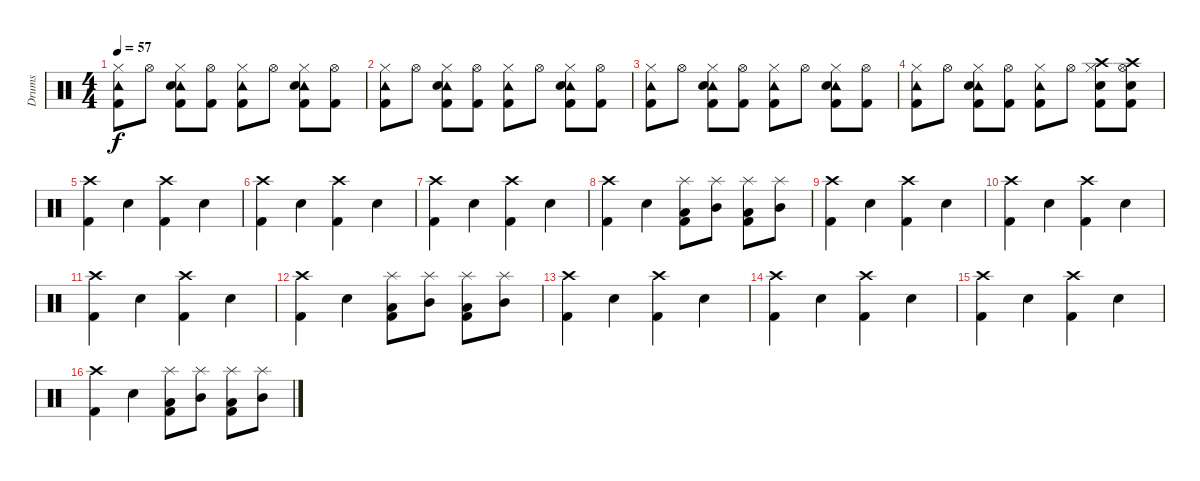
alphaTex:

\track ("Drums" "Drums") {instrument percussion}
\staff {score}
\articulation defaults
\ts (4 4)
\tempo 57
\clef neutral
\ks c
("Tambourine (hit)" "Hi-Hat (closed)" "Kick (hit) 2").8{dy f} "Hi-Hat (open)".8 ("Tambourine (hit)" "Electric Snare (hit)" "Hi-Hat (closed)" "Kick (hit) 2").8 ("Hi-Hat (open)" "Kick (hit) 2").8 ("Tambourine (hit)" "Hi-Hat (closed)" "Kick (hit) 2").8 "Hi-Hat (open)".8 ("Tambourine (hit)" "Electric Snare (hit)" "Hi-Hat (closed)" "Kick (hit) 2").8 ("Hi-Hat (open)" "Kick (hit) 2").8 |
("Hi-Hat (closed)" "Tambourine (hit)" "Kick (hit) 2").8 "Hi-Hat (open)".8 ("Tambourine (hit)" "Electric Snare (hit)" "Hi-Hat (closed)" "Kick (hit) 2").8 ("Hi-Hat (open)" "Kick (hit) 2").8 ("Tambourine (hit)" "Hi-Hat (closed)" "Kick (hit) 2").8 "Hi-Hat (open)".8 ("Tambourine (hit)" "Electric Snare (hit)" "Hi-Hat (closed)" "Kick (hit) 2").8 ("Hi-Hat (open)" "Kick (hit) 2").8 |
("Hi-Hat (closed)" "Tambourine (hit)" "Kick (hit) 2").8 "Hi-Hat (open)".8 ("Tambourine (hit)" "Electric Snare (hit)" "Hi-Hat (closed)" "Kick (hit) 2").8 ("Hi-Hat (open)" "Kick (hit) 2").8 ("Tambourine (hit)" "Hi-Hat (closed)" "Kick (hit) 2").8 "Hi-Hat (open)".8 ("Tambourine (hit)" "Electric Snare (hit)" "Hi-Hat (closed)" "Kick (hit) 2").8 ("Hi-Hat (open)" "Kick (hit) 2").8 |
("Tambourine (hit)" "Hi-Hat (closed)" "Kick (hit) 2").8 "Hi-Hat (open)".8 ("Tambourine (hit)" "Electric Snare (hit)" "Hi-Hat (closed)" "Kick (hit) 2").8 ("Hi-Hat (open)" "Kick (hit) 2").8 ("Tambourine (hit)" "Hi-Hat (closed)" "Kick (hit) 2").8 "Hi-Hat (open)".8 ("Crash high (hit)" "Electric Snare (hit)" "Hi-Hat (closed)" "Kick (hit) 2").8 ("Electric Snare (hit)" "Crash high (hit)" "Hi-Hat (open)" "Kick (hit) 2").8 |
("Crash high (hit)" "Kick (hit) 2").4 "Snare (hit) 2".4 ("Crash high (hit)" "Kick (hit) 2").4 "Snare (hit) 2".4 |
("Crash high (hit)" "Kick (hit) 2").4 "Snare (hit) 2".4 ("Crash high (hit)" "Kick (hit) 2").4 "Snare (hit) 2".4 |
("Crash high (hit)" "Kick (hit) 2").4 "Snare (hit) 2".4 ("Crash high (hit)" "Kick (hit) 2").4 "Snare (hit) 2".4 |
("Crash high (hit)" "Kick (hit) 2").4 "Snare (hit) 2".4 ("Low Tom (hit)" "Splash (hit)" "Kick (hit) 2").8 ("Mid Tom (hit)" "Splash (hit)").8 ("Low Tom (hit)" "Splash (hit)" "Kick (hit) 2").8 ("Mid Tom (hit)" "Splash (hit)").8 |
("Crash high (hit)" "Kick (hit) 2").4 "Snare (hit) 2".4 ("Crash high (hit)" "Kick (hit) 2").4 "Snare (hit) 2".4 |
("Crash high (hit)" "Kick (hit) 2").4 "Snare (hit) 2".4 ("Crash high (hit)" "Kick (hit) 2").4 "Snare (hit) 2".4 |
("Crash high (hit)" "Kick (hit) 2").4 "Snare (hit) 2".4 ("Crash high (hit)" "Kick (hit) 2").4 "Snare (hit) 2".4 |
("Crash high (hit)" "Kick (hit) 2").4 "Snare (hit) 2".4 ("Low Tom (hit)" "Splash (hit)" "Kick (hit) 2").8 ("Mid Tom (hit)" "Splash (hit)").8 ("Low Tom (hit)" "Splash (hit)" "Kick (hit) 2").8 ("Mid Tom (hit)" "Splash (hit)").8 |
("Crash high (hit)" "Kick (hit) 2").4 "Snare (hit) 2".4 ("Crash high (hit)" "Kick (hit) 2").4 "Snare (hit) 2".4 |
("Crash high (hit)" "Kick (hit) 2").4 "Snare (hit) 2".4 ("Crash high (hit)" "Kick (hit) 2").4 "Snare (hit) 2".4 |
("Crash high (hit)" "Kick (hit) 2").4 "Snare (hit) 2".4 ("Crash high (hit)" "Kick (hit) 2").4 "Snare (hit) 2".4 |
("Crash high (hit)" "Kick (hit) 2").4 "Snare (hit) 2".4 ("Low Tom (hit)" "Splash (hit)" "Kick (hit) 2").8 ("Mid Tom (hit)" "Splash (hit)").8 ("Low Tom (hit)" "Splash (hit)" "Kick (hit) 2").8 ("Mid Tom (hit)" "Splash (hit)").8
